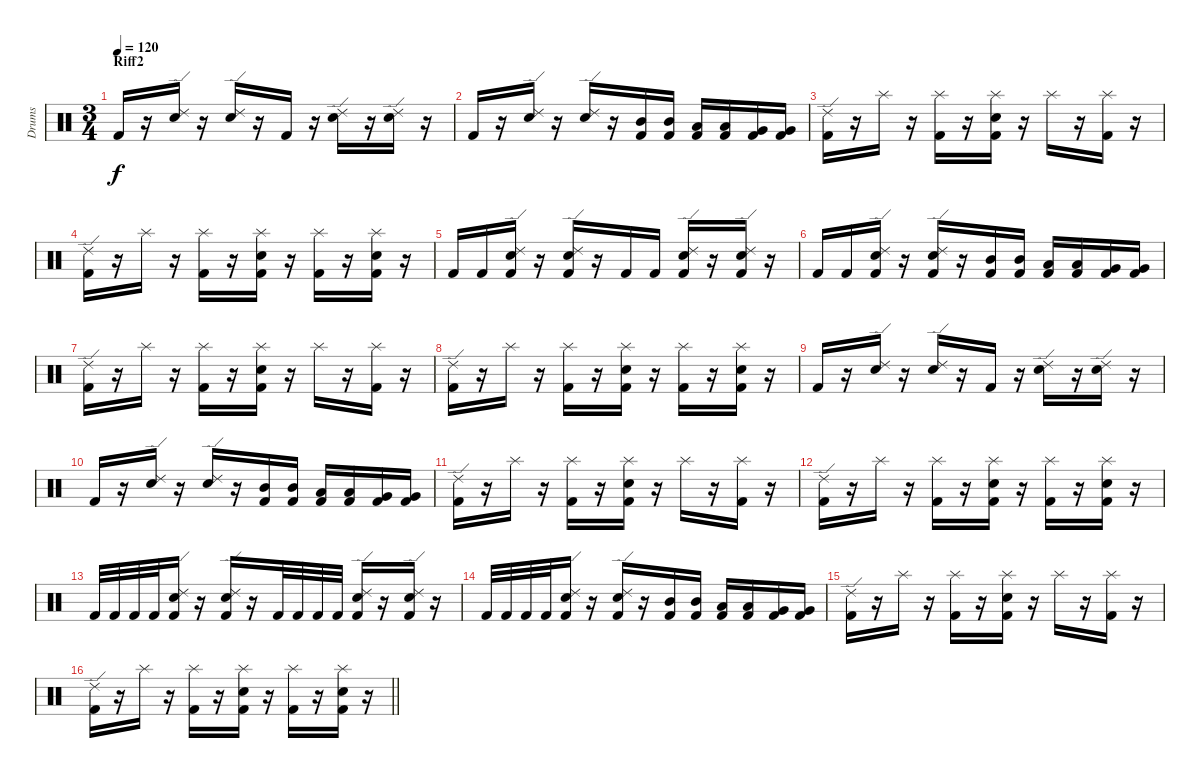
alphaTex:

\track ("Drums" "Drums") {instrument percussion}
\staff {score}
\articulation defaults
\ts (3 4)
\section ("" "Riff2")
\tempo 120
\clef neutral
\ks c "Kick (hit) 2".16{dy f}
r.16 ("Snare (hit) 2" "Ride (edge) 2").16 r.16 ("Snare (hit) 2" "Ride (edge) 2").16 r.16 "Kick (hit) 2".16 r.16 ("Snare (hit) 2" "Ride (edge) 2").16 r.16 ("Snare (hit) 2" "Ride (edge) 2").16 r.16 |
"Kick (hit) 2".16 r.16 ("Snare (hit) 2" "Ride (edge) 2").16 r.16 ("Snare (hit) 2" "Ride (edge) 2").16 r.16 ("Kick (hit) 2" "Mid Tom (hit)").16 ("Kick (hit) 2" "Mid Tom (hit)").16 ("Kick (hit) 2" "Low Tom (hit)").16 ("Kick (hit) 2" "Low Tom (hit)").16 ("Kick (hit) 2" "Very Low Tom (hit)").16 ("Kick (hit) 2" "Very Low Tom (hit)").16 |
("Kick (hit) 2" "Ride (edge) 2").16 r.16 "Splash (hit)".16 r.16 ("Kick (hit) 2" "Splash (hit)").16 r.16 ("Kick (hit) 2" "Splash (hit)" "Snare (hit) 2").16 r.16 "Splash (hit)".16 r.16 ("Kick (hit) 2" "Splash (hit)").16 r.16 |
("Kick (hit) 2" "Ride (edge) 2").16 r.16 "Splash (hit)".16 r.16 ("Kick (hit) 2" "Splash (hit)").16 r.16 ("Kick (hit) 2" "Splash (hit)" "Snare (hit) 2").16 r.16 ("Kick (hit) 2" "Splash (hit)").16 r.16 ("Kick (hit) 2" "Splash (hit)" "Snare (hit) 2").16 r.16 |
"Kick (hit) 2".16 "Kick (hit) 2".16 ("Kick (hit) 2" "Snare (hit) 2" "Ride (edge) 2").16 r.16 ("Kick (hit) 2" "Snare (hit) 2" "Ride (edge) 2").16 r.16 "Kick (hit) 2".16 "Kick (hit) 2".16 ("Kick (hit) 2" "Snare (hit) 2" "Ride (edge) 2").16 r.16 ("Kick (hit) 2" "Snare (hit) 2" "Ride (edge) 2").16 r.16 |
"Kick (hit) 2".16 "Kick (hit) 2".16 ("Kick (hit) 2" "Snare (hit) 2" "Ride (edge) 2").16 r.16 ("Kick (hit) 2" "Snare (hit) 2" "Ride (edge) 2").16 r.16 ("Kick (hit) 2" "Mid Tom (hit)").16 ("Kick (hit) 2" "Mid Tom (hit)").16 ("Kick (hit) 2" "Low Tom (hit)").16 ("Kick (hit) 2" "Low Tom (hit)").16 ("Kick (hit) 2" "Very Low Tom (hit)").16 ("Kick (hit) 2" "Very Low Tom (hit)").16 |
("Kick (hit) 2" "Ride (edge) 2").16 r.16 "Splash (hit)".16 r.16 ("Kick (hit) 2" "Splash (hit)").16 r.16 ("Kick (hit) 2" "Splash (hit)" "Snare (hit) 2").16 r.16 "Splash (hit)".16 r.16 ("Kick (hit) 2" "Splash (hit)").16 r.16 |
("Kick (hit) 2" "Ride (edge) 2").16 r.16 "Splash (hit)".16 r.16 ("Kick (hit) 2" "Splash (hit)").16 r.16 ("Kick (hit) 2" "Splash (hit)" "Snare (hit) 2").16 r.16 ("Kick (hit) 2" "Splash (hit)").16 r.16 ("Kick (hit) 2" "Splash (hit)" "Snare (hit) 2").16 r.16 |
"Kick (hit) 2".16 r.16 ("Snare (hit) 2" "Ride (edge) 2").16 r.16 ("Snare (hit) 2" "Ride (edge) 2").16 r.16 "Kick (hit) 2".16 r.16 ("Snare (hit) 2" "Ride (edge) 2").16 r.16 ("Snare (hit) 2" "Ride (edge) 2").16 r.16 |
"Kick (hit) 2".16 r.16 ("Snare (hit) 2" "Ride (edge) 2").16 r.16 ("Snare (hit) 2" "Ride (edge) 2").16 r.16 ("Kick (hit) 2" "Mid Tom (hit)").16 ("Kick (hit) 2" "Mid Tom (hit)").16 ("Kick (hit) 2" "Low Tom (hit)").16 ("Kick (hit) 2" "Low Tom (hit)").16 ("Kick (hit) 2" "Very Low Tom (hit)").16 ("Kick (hit) 2" "Very Low Tom (hit)").16 |
("Kick (hit) 2" "Ride (edge) 2").16 r.16 "Splash (hit)".16 r.16 ("Kick (hit) 2" "Splash (hit)").16 r.16 ("Kick (hit) 2" "Splash (hit)" "Snare (hit) 2").16 r.16 "Splash (hit)".16 r.16 ("Kick (hit) 2" "Splash (hit)").16 r.16 |
("Kick (hit) 2" "Ride (edge) 2").16 r.16 "Splash (hit)".16 r.16 ("Kick (hit) 2" "Splash (hit)").16 r.16 ("Kick (hit) 2" "Splash (hit)" "Snare (hit) 2").16 r.16 ("Kick (hit) 2" "Splash (hit)").16 r.16 ("Kick (hit) 2" "Splash (hit)" "Snare (hit) 2").16 r.16 |
"Kick (hit) 2".32 "Kick (hit) 2".32 "Kick (hit) 2".32 "Kick (hit) 2".32 ("Kick (hit) 2" "Snare (hit) 2" "Ride (edge) 2").16 r.16 ("Kick (hit) 2" "Snare (hit) 2" "Ride (edge) 2").16 r.16 "Kick (hit) 2".32 "Kick (hit) 2".32 "Kick (hit) 2".32 "Kick (hit) 2".32 ("Kick (hit) 2" "Snare (hit) 2" "Ride (edge) 2").16 r.16 ("Kick (hit) 2" "Snare (hit) 2" "Ride (edge) 2").16 r.16 |
"Kick (hit) 2".32 "Kick (hit) 2".32 "Kick (hit) 2".32 "Kick (hit) 2".32 ("Kick (hit) 2" "Snare (hit) 2" "Ride (edge) 2").16 r.16 ("Kick (hit) 2" "Snare (hit) 2" "Ride (edge) 2").16 r.16 ("Kick (hit) 2" "Mid Tom (hit)").16 ("Kick (hit) 2" "Mid Tom (hit)").16 ("Kick (hit) 2" "Low Tom (hit)").16 ("Kick (hit) 2" "Low Tom (hit)").16 ("Kick (hit) 2" "Very Low Tom (hit)").16 ("Kick (hit) 2" "Very Low Tom (hit)").16 |
("Kick (hit) 2" "Ride (edge) 2").16 r.16 "Splash (hit)".16 r.16 ("Kick (hit) 2" "Splash (hit)").16 r.16 ("Kick (hit) 2" "Splash (hit)" "Snare (hit) 2").16 r.16 "Splash (hit)".16 r.16 ("Kick (hit) 2" "Splash (hit)").16 r.16 |
\barLineRight lightlight
("Kick (hit) 2" "Ride (edge) 2").16 r.16 "Splash (hit)".16 r.16 ("Kick (hit) 2" "Splash (hit)").16 r.16 ("Kick (hit) 2" "Splash (hit)" "Snare (hit) 2").16 r.16 ("Kick (hit) 2" "Splash (hit)").16 r.16 ("Kick (hit) 2" "Splash (hit)" "Snare (hit) 2").16 r.16
